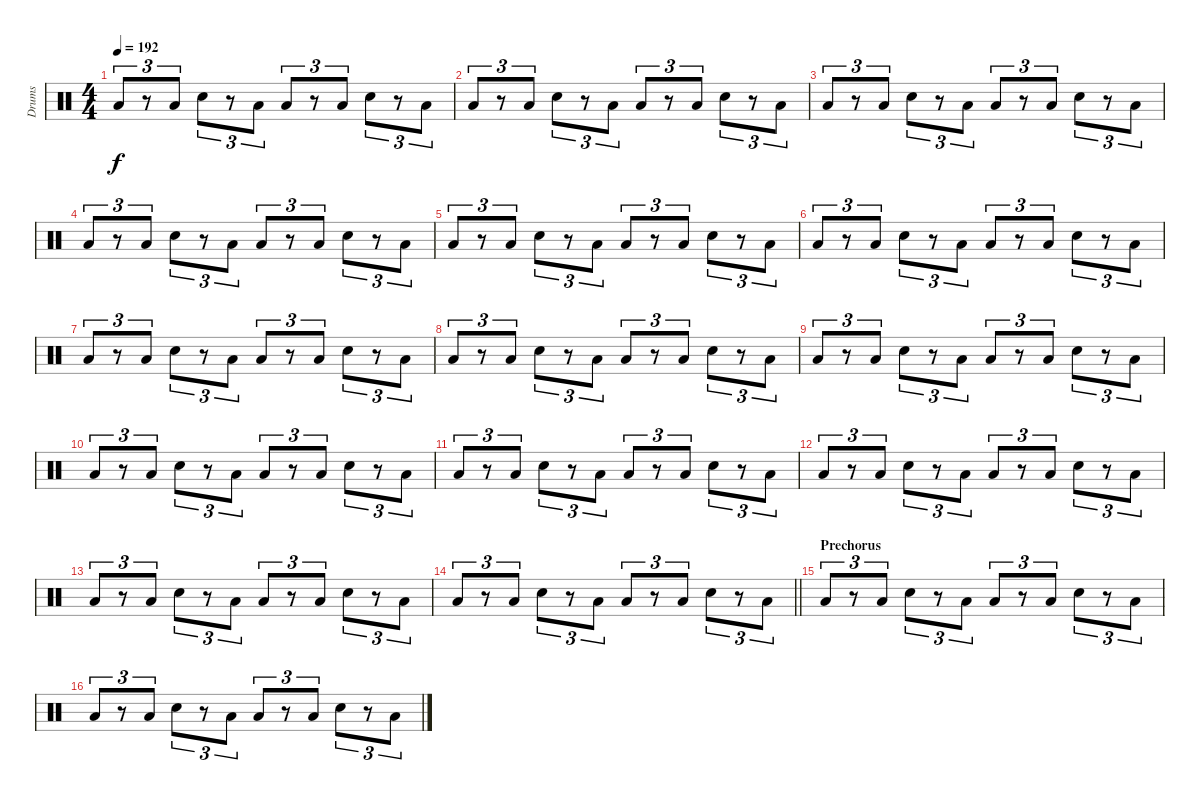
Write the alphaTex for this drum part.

\track ("Drums" "Drums") {instrument percussion}
\staff {score}
\articulation defaults
\ts (4 4)
\tempo 192
\clef neutral
\ks c "Low Floor Tom (hit)".8{tu (3 2) dy f}
r.8{tu (3 2)} "Low Tom (hit)".8{tu (3 2)} "Snare (hit) 2".8{tu (3 2)} r.8{tu (3 2)} "Low Tom (hit)".8{tu (3 2)} "Low Floor Tom (hit)".8{tu (3 2)} r.8{tu (3 2)} "Low Tom (hit)".8{tu (3 2)} "Snare (hit) 2".8{tu (3 2)} r.8{tu (3 2)} "Low Tom (hit)".8{tu (3 2)} |
"Low Floor Tom (hit)".8{tu (3 2)} r.8{tu (3 2)} "Low Tom (hit)".8{tu (3 2)} "Snare (hit) 2".8{tu (3 2)} r.8{tu (3 2)} "Low Tom (hit)".8{tu (3 2)} "Low Floor Tom (hit)".8{tu (3 2)} r.8{tu (3 2)} "Low Tom (hit)".8{tu (3 2)} "Snare (hit) 2".8{tu (3 2)} r.8{tu (3 2)} "Low Tom (hit)".8{tu (3 2)} |
"Low Floor Tom (hit)".8{tu (3 2)} r.8{tu (3 2)} "Low Tom (hit)".8{tu (3 2)} "Snare (hit) 2".8{tu (3 2)} r.8{tu (3 2)} "Low Tom (hit)".8{tu (3 2)} "Low Floor Tom (hit)".8{tu (3 2)} r.8{tu (3 2)} "Low Tom (hit)".8{tu (3 2)} "Snare (hit) 2".8{tu (3 2)} r.8{tu (3 2)} "Low Tom (hit)".8{tu (3 2)} |
"Low Floor Tom (hit)".8{tu (3 2)} r.8{tu (3 2)} "Low Tom (hit)".8{tu (3 2)} "Snare (hit) 2".8{tu (3 2)} r.8{tu (3 2)} "Low Tom (hit)".8{tu (3 2)} "Low Floor Tom (hit)".8{tu (3 2)} r.8{tu (3 2)} "Low Tom (hit)".8{tu (3 2)} "Snare (hit) 2".8{tu (3 2)} r.8{tu (3 2)} "Low Tom (hit)".8{tu (3 2)} |
"Low Floor Tom (hit)".8{tu (3 2)} r.8{tu (3 2)} "Low Tom (hit)".8{tu (3 2)} "Snare (hit) 2".8{tu (3 2)} r.8{tu (3 2)} "Low Tom (hit)".8{tu (3 2)} "Low Floor Tom (hit)".8{tu (3 2)} r.8{tu (3 2)} "Low Tom (hit)".8{tu (3 2)} "Snare (hit) 2".8{tu (3 2)} r.8{tu (3 2)} "Low Tom (hit)".8{tu (3 2)} |
"Low Floor Tom (hit)".8{tu (3 2)} r.8{tu (3 2)} "Low Tom (hit)".8{tu (3 2)} "Snare (hit) 2".8{tu (3 2)} r.8{tu (3 2)} "Low Tom (hit)".8{tu (3 2)} "Low Floor Tom (hit)".8{tu (3 2)} r.8{tu (3 2)} "Low Tom (hit)".8{tu (3 2)} "Snare (hit) 2".8{tu (3 2)} r.8{tu (3 2)} "Low Tom (hit)".8{tu (3 2)} |
"Low Floor Tom (hit)".8{tu (3 2)} r.8{tu (3 2)} "Low Tom (hit)".8{tu (3 2)} "Snare (hit) 2".8{tu (3 2)} r.8{tu (3 2)} "Low Tom (hit)".8{tu (3 2)} "Low Floor Tom (hit)".8{tu (3 2)} r.8{tu (3 2)} "Low Tom (hit)".8{tu (3 2)} "Snare (hit) 2".8{tu (3 2)} r.8{tu (3 2)} "Low Tom (hit)".8{tu (3 2)} |
"Low Floor Tom (hit)".8{tu (3 2)} r.8{tu (3 2)} "Low Tom (hit)".8{tu (3 2)} "Snare (hit) 2".8{tu (3 2)} r.8{tu (3 2)} "Low Tom (hit)".8{tu (3 2)} "Low Floor Tom (hit)".8{tu (3 2)} r.8{tu (3 2)} "Low Tom (hit)".8{tu (3 2)} "Snare (hit) 2".8{tu (3 2)} r.8{tu (3 2)} "Low Tom (hit)".8{tu (3 2)} |
"Low Floor Tom (hit)".8{tu (3 2)} r.8{tu (3 2)} "Low Tom (hit)".8{tu (3 2)} "Snare (hit) 2".8{tu (3 2)} r.8{tu (3 2)} "Low Tom (hit)".8{tu (3 2)} "Low Floor Tom (hit)".8{tu (3 2)} r.8{tu (3 2)} "Low Tom (hit)".8{tu (3 2)} "Snare (hit) 2".8{tu (3 2)} r.8{tu (3 2)} "Low Tom (hit)".8{tu (3 2)} |
"Low Floor Tom (hit)".8{tu (3 2)} r.8{tu (3 2)} "Low Tom (hit)".8{tu (3 2)} "Snare (hit) 2".8{tu (3 2)} r.8{tu (3 2)} "Low Tom (hit)".8{tu (3 2)} "Low Floor Tom (hit)".8{tu (3 2)} r.8{tu (3 2)} "Low Tom (hit)".8{tu (3 2)} "Snare (hit) 2".8{tu (3 2)} r.8{tu (3 2)} "Low Tom (hit)".8{tu (3 2)} |
"Low Floor Tom (hit)".8{tu (3 2)} r.8{tu (3 2)} "Low Tom (hit)".8{tu (3 2)} "Snare (hit) 2".8{tu (3 2)} r.8{tu (3 2)} "Low Tom (hit)".8{tu (3 2)} "Low Floor Tom (hit)".8{tu (3 2)} r.8{tu (3 2)} "Low Tom (hit)".8{tu (3 2)} "Snare (hit) 2".8{tu (3 2)} r.8{tu (3 2)} "Low Tom (hit)".8{tu (3 2)} |
"Low Floor Tom (hit)".8{tu (3 2)} r.8{tu (3 2)} "Low Tom (hit)".8{tu (3 2)} "Snare (hit) 2".8{tu (3 2)} r.8{tu (3 2)} "Low Tom (hit)".8{tu (3 2)} "Low Floor Tom (hit)".8{tu (3 2)} r.8{tu (3 2)} "Low Tom (hit)".8{tu (3 2)} "Snare (hit) 2".8{tu (3 2)} r.8{tu (3 2)} "Low Tom (hit)".8{tu (3 2)} |
"Low Floor Tom (hit)".8{tu (3 2)} r.8{tu (3 2)} "Low Tom (hit)".8{tu (3 2)} "Snare (hit) 2".8{tu (3 2)} r.8{tu (3 2)} "Low Tom (hit)".8{tu (3 2)} "Low Floor Tom (hit)".8{tu (3 2)} r.8{tu (3 2)} "Low Tom (hit)".8{tu (3 2)} "Snare (hit) 2".8{tu (3 2)} r.8{tu (3 2)} "Low Tom (hit)".8{tu (3 2)} |
\barLineRight lightlight "Low Floor Tom (hit)".8{tu (3 2)}
r.8{tu (3 2)} "Low Tom (hit)".8{tu (3 2)} "Snare (hit) 2".8{tu (3 2)} r.8{tu (3 2)} "Low Tom (hit)".8{tu (3 2)} "Low Floor Tom (hit)".8{tu (3 2)} r.8{tu (3 2)} "Low Tom (hit)".8{tu (3 2)} "Snare (hit) 2".8{tu (3 2)} r.8{tu (3 2)} "Low Tom (hit)".8{tu (3 2)} |
\section ("" "Prechorus")
"Low Floor Tom (hit)".8{tu (3 2)} r.8{tu (3 2)} "Low Tom (hit)".8{tu (3 2)} "Snare (hit) 2".8{tu (3 2)} r.8{tu (3 2)} "Low Tom (hit)".8{tu (3 2)} "Low Floor Tom (hit)".8{tu (3 2)} r.8{tu (3 2)} "Low Tom (hit)".8{tu (3 2)} "Snare (hit) 2".8{tu (3 2)} r.8{tu (3 2)} "Low Tom (hit)".8{tu (3 2)} |
"Low Floor Tom (hit)".8{tu (3 2)} r.8{tu (3 2)} "Low Tom (hit)".8{tu (3 2)} "Snare (hit) 2".8{tu (3 2)} r.8{tu (3 2)} "Low Tom (hit)".8{tu (3 2)} "Low Floor Tom (hit)".8{tu (3 2)} r.8{tu (3 2)} "Low Tom (hit)".8{tu (3 2)} "Snare (hit) 2".8{tu (3 2)} r.8{tu (3 2)} "Low Tom (hit)".8{tu (3 2)}
